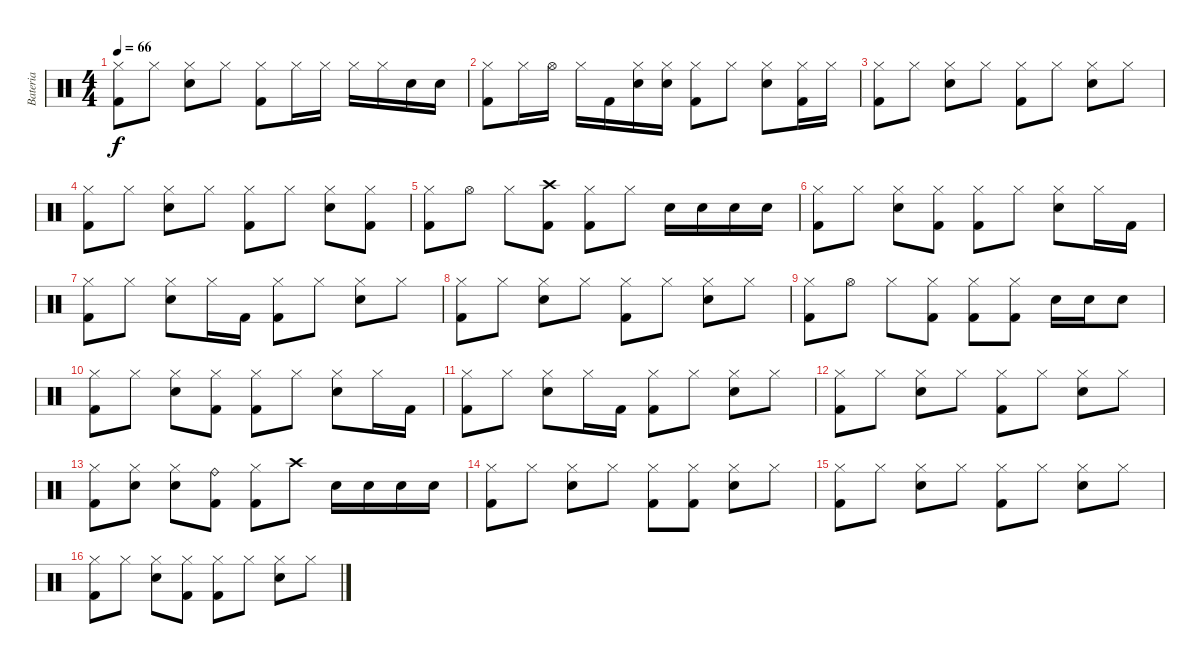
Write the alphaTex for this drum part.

\track ("Bateria" "Bateria") {instrument percussion}
\staff {score}
\articulation defaults
\ts (4 4)
\tempo 66
\clef neutral
\ks c
("Hi-Hat (closed)" "Kick (hit) 2").8{dy f} "Hi-Hat (closed)".8 ("Hi-Hat (closed)" "Snare (hit) 2").8 "Hi-Hat (closed)".8 ("Hi-Hat (closed)" "Kick (hit) 2").8 "Hi-Hat (closed)".16 "Hi-Hat (closed)".16 "Hi-Hat (closed)".16 "Hi-Hat (closed)".16 "Snare (hit) 2".16 "Snare (hit) 2".16 |
("Hi-Hat (closed)" "Kick (hit) 2").8 "Hi-Hat (closed)".16 "Hi-Hat (open)".16 "Hi-Hat (closed)".16 "Kick (hit) 2".16 ("Hi-Hat (closed)" "Snare (hit) 2").16 ("Hi-Hat (closed)" "Snare (hit) 2").16 ("Hi-Hat (closed)" "Kick (hit) 2").8 "Hi-Hat (closed)".8 ("Hi-Hat (closed)" "Snare (hit) 2").8 ("Hi-Hat (closed)" "Kick (hit) 2").16 "Hi-Hat (closed)".16 |
("Hi-Hat (closed)" "Kick (hit) 2").8 "Hi-Hat (closed)".8 ("Hi-Hat (closed)" "Snare (hit) 2").8 "Hi-Hat (closed)".8 ("Hi-Hat (closed)" "Kick (hit) 2").8 "Hi-Hat (closed)".8 ("Hi-Hat (closed)" "Snare (hit) 2").8 "Hi-Hat (closed)".8 |
("Hi-Hat (closed)" "Kick (hit) 2").8 "Hi-Hat (closed)".8 ("Hi-Hat (closed)" "Snare (hit) 2").8 "Hi-Hat (closed)".8 ("Hi-Hat (closed)" "Kick (hit) 2").8 "Hi-Hat (closed)".8 ("Hi-Hat (closed)" "Snare (hit) 2").8 ("Hi-Hat (closed)" "Kick (hit) 2").8 |
("Hi-Hat (closed)" "Kick (hit) 2").8 "Hi-Hat (open)".8 "Hi-Hat (closed)".8 ("Crash high (hit)" "Kick (hit) 2").8 ("Hi-Hat (closed)" "Kick (hit) 2").8 "Hi-Hat (closed)".8 "Snare (hit) 2".16 "Snare (hit) 2".16 "Snare (hit) 2".16 "Snare (hit) 2".16 |
("Hi-Hat (closed)" "Kick (hit) 2").8 "Hi-Hat (closed)".8 ("Hi-Hat (closed)" "Snare (hit) 2").8 ("Hi-Hat (closed)" "Kick (hit) 2").8 ("Hi-Hat (closed)" "Kick (hit) 2").8 "Hi-Hat (closed)".8 ("Hi-Hat (closed)" "Snare (hit) 2").8 "Hi-Hat (closed)".16 "Kick (hit) 2".16 |
("Hi-Hat (closed)" "Kick (hit) 2").8 "Hi-Hat (closed)".8 ("Hi-Hat (closed)" "Snare (hit) 2").8 "Hi-Hat (closed)".16 "Kick (hit) 2".16 ("Hi-Hat (closed)" "Kick (hit) 2").8 "Hi-Hat (closed)".8 ("Hi-Hat (closed)" "Snare (hit) 2").8 "Hi-Hat (closed)".8 |
("Hi-Hat (closed)" "Kick (hit) 2").8 "Hi-Hat (closed)".8 ("Hi-Hat (closed)" "Snare (hit) 2").8 "Hi-Hat (closed)".8 ("Hi-Hat (closed)" "Kick (hit) 2").8 "Hi-Hat (closed)".8 ("Hi-Hat (closed)" "Snare (hit) 2").8 "Hi-Hat (closed)".8 |
("Hi-Hat (closed)" "Kick (hit) 2").8 "Hi-Hat (open)".8 "Hi-Hat (closed)".8 ("Hi-Hat (closed)" "Kick (hit) 2").8 ("Hi-Hat (closed)" "Kick (hit) 2").8 ("Hi-Hat (closed)" "Kick (hit) 2").8 "Snare (hit) 2".16 "Snare (hit) 2".16 "Snare (hit) 2".8 |
("Hi-Hat (closed)" "Kick (hit) 2").8 "Hi-Hat (closed)".8 ("Hi-Hat (closed)" "Snare (hit) 2").8 ("Hi-Hat (closed)" "Kick (hit) 2").8 ("Hi-Hat (closed)" "Kick (hit) 2").8 "Hi-Hat (closed)".8 ("Hi-Hat (closed)" "Snare (hit) 2").8 "Hi-Hat (closed)".16 "Kick (hit) 2".16 |
("Hi-Hat (closed)" "Kick (hit) 2").8 "Hi-Hat (closed)".8 ("Hi-Hat (closed)" "Snare (hit) 2").8 "Hi-Hat (closed)".16 "Kick (hit) 2".16 ("Hi-Hat (closed)" "Kick (hit) 2").8 "Hi-Hat (closed)".8 ("Hi-Hat (closed)" "Snare (hit) 2").8 "Hi-Hat (closed)".8 |
("Hi-Hat (closed)" "Kick (hit) 2").8 "Hi-Hat (closed)".8 ("Hi-Hat (closed)" "Snare (hit) 2").8 "Hi-Hat (closed)".8 ("Hi-Hat (closed)" "Kick (hit) 2").8 "Hi-Hat (closed)".8 ("Hi-Hat (closed)" "Snare (hit) 2").8 "Hi-Hat (closed)".8 |
("Hi-Hat (closed)" "Kick (hit) 2").8 ("Hi-Hat (closed)" "Snare (hit) 2").8 ("Hi-Hat (closed)" "Snare (hit) 2").8 ("Ride (bell)" "Kick (hit) 2").8 ("Hi-Hat (closed)" "Kick (hit) 2").8 "Crash high (hit)".8 "Snare (hit) 2".16 "Snare (hit) 2".16 "Snare (hit) 2".16 "Snare (hit) 2".16 |
("Hi-Hat (closed)" "Kick (hit) 2").8 "Hi-Hat (closed)".8 ("Hi-Hat (closed)" "Snare (hit) 2").8 "Hi-Hat (closed)".8 ("Hi-Hat (closed)" "Kick (hit) 2").8 ("Hi-Hat (closed)" "Kick (hit) 2").8 ("Hi-Hat (closed)" "Snare (hit) 2").8 "Hi-Hat (closed)".8 |
("Hi-Hat (closed)" "Kick (hit) 2").8 "Hi-Hat (closed)".8 ("Hi-Hat (closed)" "Snare (hit) 2").8 "Hi-Hat (closed)".8 ("Hi-Hat (closed)" "Kick (hit) 2").8 "Hi-Hat (closed)".8 ("Hi-Hat (closed)" "Snare (hit) 2").8 "Hi-Hat (closed)".8 |
("Hi-Hat (closed)" "Kick (hit) 2").8 "Hi-Hat (closed)".8 ("Hi-Hat (closed)" "Snare (hit) 2").8 ("Hi-Hat (closed)" "Kick (hit) 2").8 ("Hi-Hat (closed)" "Kick (hit) 2").8 "Hi-Hat (closed)".8 ("Hi-Hat (closed)" "Snare (hit) 2").8 "Hi-Hat (closed)".8
